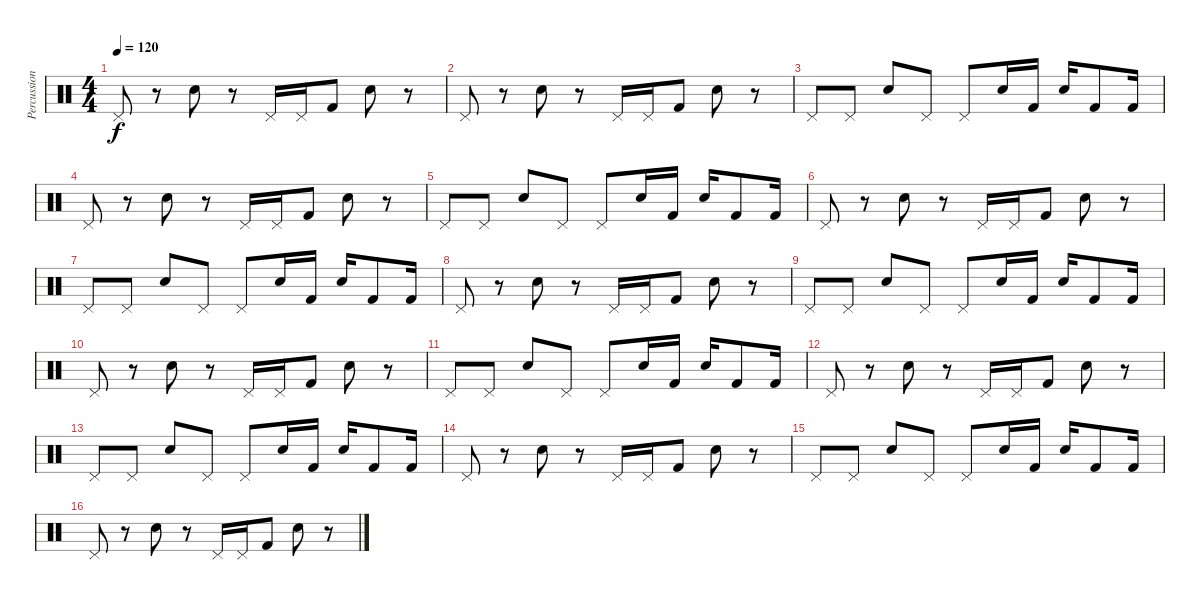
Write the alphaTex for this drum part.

\track ("Percussion" "Percussion") {instrument percussion}
\staff {score}
\articulation defaults
\ts (4 4)
\tempo 120
\clef neutral
\ks c "Pedal Hi-Hat (hit)".8{dy f}
r.8 "Electric Snare (hit)".8 r.8 "Pedal Hi-Hat (hit)".16 "Pedal Hi-Hat (hit)".16 "Kick (hit) 2".8 "Electric Snare (hit)".8 r.8 |
"Pedal Hi-Hat (hit)".8 r.8 "Electric Snare (hit)".8 r.8 "Pedal Hi-Hat (hit)".16 "Pedal Hi-Hat (hit)".16 "Kick (hit) 2".8 "Electric Snare (hit)".8 r.8 |
"Pedal Hi-Hat (hit)".8 "Pedal Hi-Hat (hit)".8 "Electric Snare (hit)".8 "Pedal Hi-Hat (hit)".8 "Pedal Hi-Hat (hit)".8 "Electric Snare (hit)".16 "Kick (hit) 2".16 "Electric Snare (hit)".16 "Kick (hit) 2".8 "Kick (hit) 2".16 |
"Pedal Hi-Hat (hit)".8 r.8 "Electric Snare (hit)".8 r.8 "Pedal Hi-Hat (hit)".16 "Pedal Hi-Hat (hit)".16 "Kick (hit) 2".8 "Electric Snare (hit)".8 r.8 |
"Pedal Hi-Hat (hit)".8 "Pedal Hi-Hat (hit)".8 "Electric Snare (hit)".8 "Pedal Hi-Hat (hit)".8 "Pedal Hi-Hat (hit)".8 "Electric Snare (hit)".16 "Kick (hit) 2".16 "Electric Snare (hit)".16 "Kick (hit) 2".8 "Kick (hit) 2".16 |
"Pedal Hi-Hat (hit)".8 r.8 "Electric Snare (hit)".8 r.8 "Pedal Hi-Hat (hit)".16 "Pedal Hi-Hat (hit)".16 "Kick (hit) 2".8 "Electric Snare (hit)".8 r.8 |
"Pedal Hi-Hat (hit)".8 "Pedal Hi-Hat (hit)".8 "Electric Snare (hit)".8 "Pedal Hi-Hat (hit)".8 "Pedal Hi-Hat (hit)".8 "Electric Snare (hit)".16 "Kick (hit) 2".16 "Electric Snare (hit)".16 "Kick (hit) 2".8 "Kick (hit) 2".16 |
"Pedal Hi-Hat (hit)".8 r.8 "Electric Snare (hit)".8 r.8 "Pedal Hi-Hat (hit)".16 "Pedal Hi-Hat (hit)".16 "Kick (hit) 2".8 "Electric Snare (hit)".8 r.8 |
"Pedal Hi-Hat (hit)".8 "Pedal Hi-Hat (hit)".8 "Electric Snare (hit)".8 "Pedal Hi-Hat (hit)".8 "Pedal Hi-Hat (hit)".8 "Electric Snare (hit)".16 "Kick (hit) 2".16 "Electric Snare (hit)".16 "Kick (hit) 2".8 "Kick (hit) 2".16 |
"Pedal Hi-Hat (hit)".8 r.8 "Electric Snare (hit)".8 r.8 "Pedal Hi-Hat (hit)".16 "Pedal Hi-Hat (hit)".16 "Kick (hit) 2".8 "Electric Snare (hit)".8 r.8 |
"Pedal Hi-Hat (hit)".8 "Pedal Hi-Hat (hit)".8 "Electric Snare (hit)".8 "Pedal Hi-Hat (hit)".8 "Pedal Hi-Hat (hit)".8 "Electric Snare (hit)".16 "Kick (hit) 2".16 "Electric Snare (hit)".16 "Kick (hit) 2".8 "Kick (hit) 2".16 |
"Pedal Hi-Hat (hit)".8 r.8 "Electric Snare (hit)".8 r.8 "Pedal Hi-Hat (hit)".16 "Pedal Hi-Hat (hit)".16 "Kick (hit) 2".8 "Electric Snare (hit)".8 r.8 |
"Pedal Hi-Hat (hit)".8 "Pedal Hi-Hat (hit)".8 "Electric Snare (hit)".8 "Pedal Hi-Hat (hit)".8 "Pedal Hi-Hat (hit)".8 "Electric Snare (hit)".16 "Kick (hit) 2".16 "Electric Snare (hit)".16 "Kick (hit) 2".8 "Kick (hit) 2".16 |
"Pedal Hi-Hat (hit)".8 r.8 "Electric Snare (hit)".8 r.8 "Pedal Hi-Hat (hit)".16 "Pedal Hi-Hat (hit)".16 "Kick (hit) 2".8 "Electric Snare (hit)".8 r.8 |
"Pedal Hi-Hat (hit)".8 "Pedal Hi-Hat (hit)".8 "Electric Snare (hit)".8 "Pedal Hi-Hat (hit)".8 "Pedal Hi-Hat (hit)".8 "Electric Snare (hit)".16 "Kick (hit) 2".16 "Electric Snare (hit)".16 "Kick (hit) 2".8 "Kick (hit) 2".16 |
"Pedal Hi-Hat (hit)".8 r.8 "Electric Snare (hit)".8 r.8 "Pedal Hi-Hat (hit)".16 "Pedal Hi-Hat (hit)".16 "Kick (hit) 2".8 "Electric Snare (hit)".8 r.8
